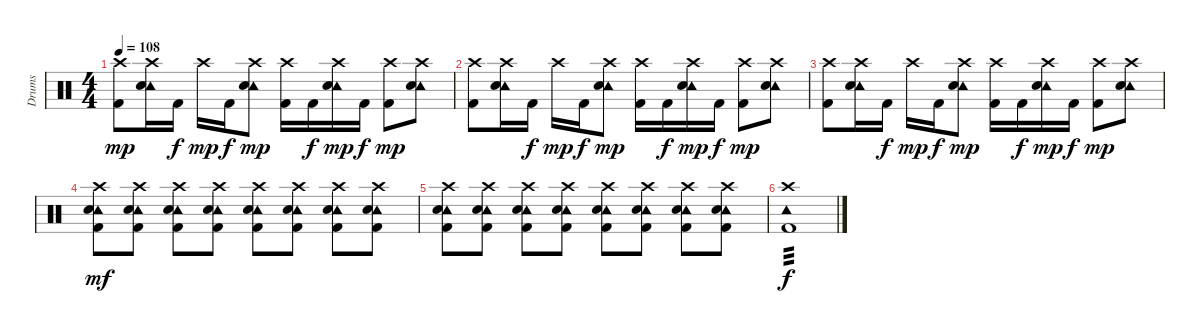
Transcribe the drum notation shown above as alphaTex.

\track ("Drums" "Drums") {instrument percussion}
\staff {score}
\articulation defaults
\ts (4 4)
\tempo 108
\clef neutral
\ks c
("Crash high (hit)" "Kick (hit) 2").8{dy mp} ("Tambourine (hit)" "Crash high (hit)" "Snare (hit) 2").16 "Kick (hit) 2".16{dy f} "Crash high (hit)".16{dy mp} "Kick (hit) 2".16{dy f} ("Tambourine (hit)" "Crash high (hit)" "Snare (hit) 2").8{dy mp} ("Crash high (hit)" "Kick (hit) 2").16 "Kick (hit) 2".16{dy f} ("Tambourine (hit)" "Crash high (hit)" "Snare (hit) 2").16{dy mp} "Kick (hit) 2".16{dy f} ("Crash high (hit)" "Kick (hit) 2").8{dy mp} ("Tambourine (hit)" "Crash high (hit)" "Snare (hit) 2").8 |
("Crash high (hit)" "Kick (hit) 2").8 ("Tambourine (hit)" "Crash high (hit)" "Snare (hit) 2").16 "Kick (hit) 2".16{dy f} "Crash high (hit)".16{dy mp} "Kick (hit) 2".16{dy f} ("Tambourine (hit)" "Crash high (hit)" "Snare (hit) 2").8{dy mp} ("Crash high (hit)" "Kick (hit) 2").16 "Kick (hit) 2".16{dy f} ("Tambourine (hit)" "Crash high (hit)" "Snare (hit) 2").16{dy mp} "Kick (hit) 2".16{dy f} ("Crash high (hit)" "Kick (hit) 2").8{dy mp} ("Tambourine (hit)" "Crash high (hit)" "Snare (hit) 2").8 |
("Crash high (hit)" "Kick (hit) 2").8 ("Tambourine (hit)" "Crash high (hit)" "Snare (hit) 2").16 "Kick (hit) 2".16{dy f} "Crash high (hit)".16{dy mp} "Kick (hit) 2".16{dy f} ("Tambourine (hit)" "Crash high (hit)" "Snare (hit) 2").8{dy mp} ("Crash high (hit)" "Kick (hit) 2").16 "Kick (hit) 2".16{dy f} ("Tambourine (hit)" "Crash high (hit)" "Snare (hit) 2").16{dy mp} "Kick (hit) 2".16{dy f} ("Crash high (hit)" "Kick (hit) 2").8{dy mp} ("Tambourine (hit)" "Crash high (hit)" "Snare (hit) 2").8 |
("Tambourine (hit)" "Crash high (hit)" "Snare (hit) 2" "Kick (hit) 2").8{dy mf} ("Tambourine (hit)" "Crash high (hit)" "Snare (hit) 2" "Kick (hit) 2").8 ("Tambourine (hit)" "Crash high (hit)" "Snare (hit) 2" "Kick (hit) 2").8 ("Tambourine (hit)" "Crash high (hit)" "Snare (hit) 2" "Kick (hit) 2").8 ("Tambourine (hit)" "Crash high (hit)" "Snare (hit) 2" "Kick (hit) 2").8 ("Tambourine (hit)" "Crash high (hit)" "Snare (hit) 2" "Kick (hit) 2").8 ("Tambourine (hit)" "Crash high (hit)" "Snare (hit) 2" "Kick (hit) 2").8 ("Tambourine (hit)" "Crash high (hit)" "Snare (hit) 2" "Kick (hit) 2").8 |
("Tambourine (hit)" "Crash high (hit)" "Snare (hit) 2" "Kick (hit) 2").8 ("Tambourine (hit)" "Crash high (hit)" "Snare (hit) 2" "Kick (hit) 2").8 ("Tambourine (hit)" "Crash high (hit)" "Snare (hit) 2" "Kick (hit) 2").8 ("Tambourine (hit)" "Crash high (hit)" "Snare (hit) 2" "Kick (hit) 2").8 ("Tambourine (hit)" "Crash high (hit)" "Snare (hit) 2" "Kick (hit) 2").8 ("Tambourine (hit)" "Crash high (hit)" "Snare (hit) 2" "Kick (hit) 2").8 ("Tambourine (hit)" "Crash high (hit)" "Snare (hit) 2" "Kick (hit) 2").8 ("Tambourine (hit)" "Crash high (hit)" "Snare (hit) 2" "Kick (hit) 2").8 |
("Tambourine (hit)" "Crash high (hit)" "Kick (hit) 2").1{tp 3 dy f volume 1}
